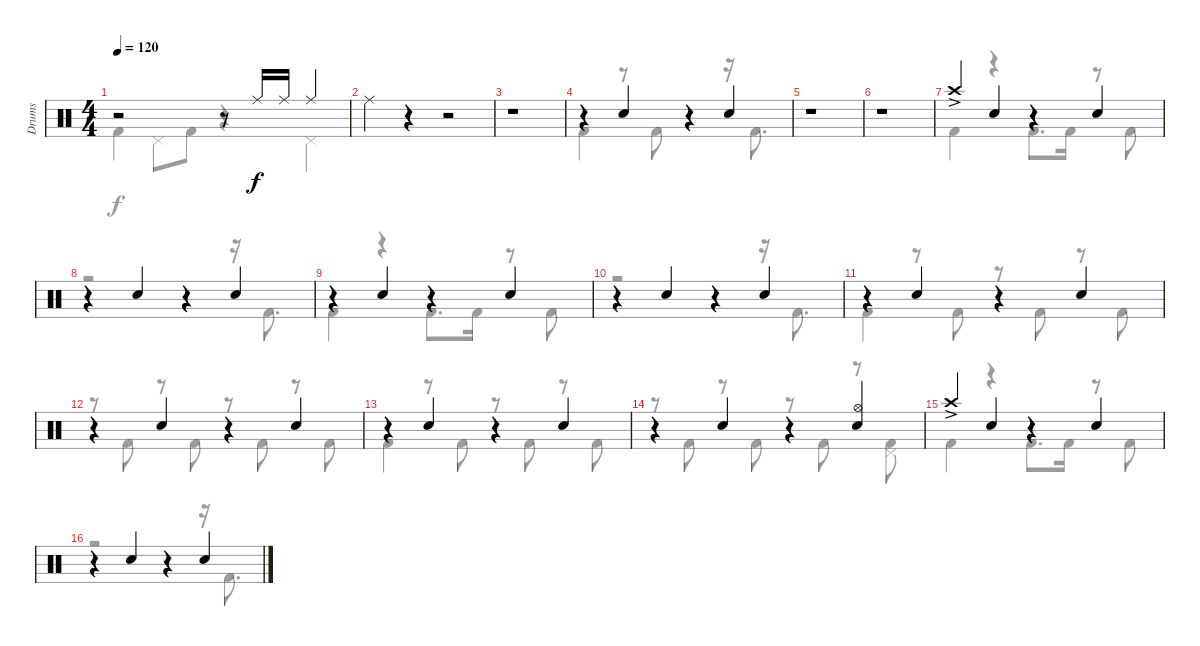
\track ("Drums" "Drums") {instrument percussion}
\staff {score}
\articulation defaults
\voice
\ts (4 4)
\tempo 120
\clef neutral
\ks c
r.2{dy f} r.8 "Ride (middle)".16 "Ride (middle)".16 "Ride (middle)".4 |
"Ride (middle)".4 r.4 r.2 |
r.1 |
r.4 "Electric Snare (hit)".4 r.4 "Electric Snare (hit)".4 |
r.1 |
r.1 |
"Crash high (hit)"{ac}.4 "Electric Snare (hit)".4 r.4 "Electric Snare (hit)".4 |
r.4 "Electric Snare (hit)".4 r.4 "Electric Snare (hit)".4 |
r.4 "Electric Snare (hit)".4 r.4 "Electric Snare (hit)".4 |
r.4 "Electric Snare (hit)".4 r.4 "Electric Snare (hit)".4 |
r.4 "Electric Snare (hit)".4 r.4 "Electric Snare (hit)".4 |
r.4 "Electric Snare (hit)".4 r.4 "Electric Snare (hit)".4 |
r.4 "Electric Snare (hit)".4 r.4 "Electric Snare (hit)".4 |
r.4 "Electric Snare (hit)".4 r.4 ("Electric Snare (hit)" "Hi-Hat (open)").4 |
"Crash high (hit)"{ac}.4 "Electric Snare (hit)".4 r.4 "Electric Snare (hit)".4 |
r.4 "Electric Snare (hit)".4 r.4 "Electric Snare (hit)".4
\voice
\clef neutral
\ottava regular
\simile none
\ks c "Kick (hit) 2".4{dy f} "Pedal Hi-Hat (hit)".8 "Kick (hit) 2".8
r.4 "Pedal Hi-Hat (hit)".4 |
|
|
"Kick (hit) 2".4 r.8 "Kick (hit) 2".8 r.4 r.16 "Kick (hit) 2".8{d} |
|
|
"Kick (hit) 2".4 r.4 "Kick (hit) 2".8{d} "Kick (hit) 2".16 r.8 "Kick (hit) 2".8 |
r.2 r.4 r.16 "Kick (hit) 2".8{d} |
"Kick (hit) 2".4 r.4 "Kick (hit) 2".8{d} "Kick (hit) 2".16 r.8 "Kick (hit) 2".8 |
r.2 r.4 r.16 "Kick (hit) 2".8{d} |
"Kick (hit) 2".4 r.8 "Kick (hit) 2".8 r.8 "Kick (hit) 2".8 r.8 "Kick (hit) 2".8 |
r.8 "Kick (hit) 2".8 r.8 "Kick (hit) 2".8 r.8 "Kick (hit) 2".8 r.8 "Kick (hit) 2".8 |
"Kick (hit) 2".4 r.8 "Kick (hit) 2".8 r.8 "Kick (hit) 2".8 r.8 "Kick (hit) 2".8 |
r.8 "Kick (hit) 2".8 r.8 "Kick (hit) 2".8 r.8 "Kick (hit) 2".8 r.8 ("Pedal Hi-Hat (hit)" "Kick (hit) 2").8 |
"Kick (hit) 2".4 r.4 "Kick (hit) 2".8{d} "Kick (hit) 2".16 r.8 "Kick (hit) 2".8 |
r.2 r.4 r.16 "Kick (hit) 2".8{d}
